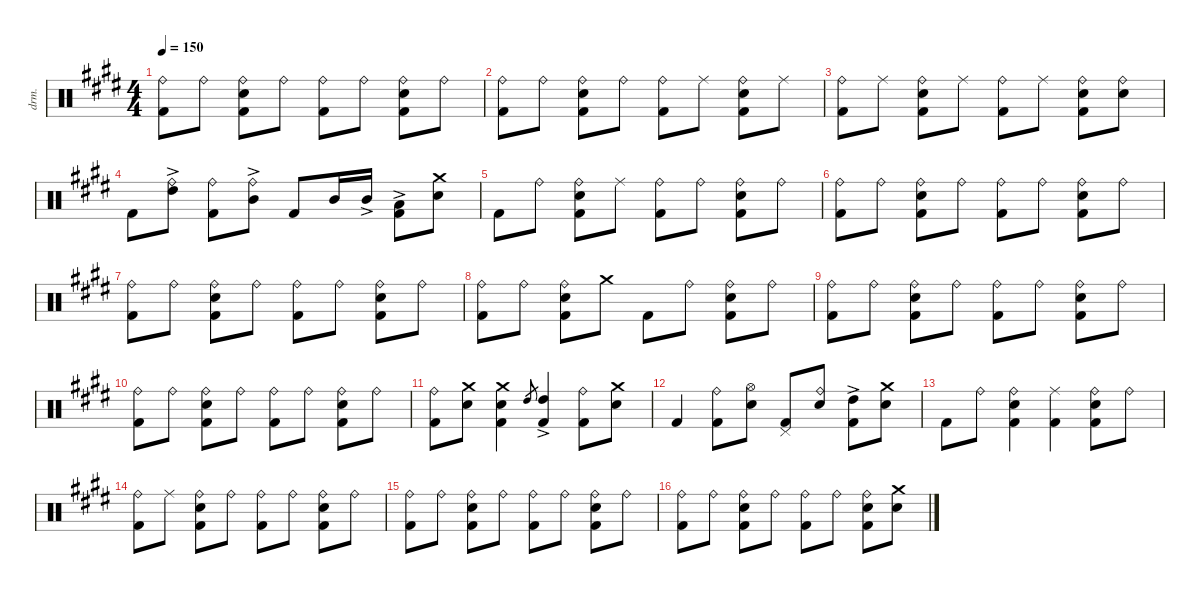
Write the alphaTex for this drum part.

\defaultSystemsLayout 4
\hideDynamics
\bracketExtendMode nobrackets
\otherSystemsTrackNameOrientation horizontal
\track ("Drums - S. Copeland" "drm.") {instrument percussion}
\staff {score}
\articulation defaults
\ts (4 4)
\tempo 150
\clef neutral
\ks c#minor
("Ride (bell)"{acc forcenatural} "Kick (hit) 2"{acc forcenatural}).8{dy mf beam Down} "Ride (bell)"{acc forcenatural}.8{beam Down} ("Ride (bell)"{acc forcenatural} "Snare (hit) 2"{acc forcenatural} "Kick (hit) 2"{acc forcenatural}).8{beam Down} "Ride (bell)"{acc forcenatural}.8{beam Down} ("Ride (bell)"{acc forcenatural} "Kick (hit) 2"{acc forcenatural}).8{beam Down} "Ride (bell)"{acc forcenatural}.8{beam Down} ("Ride (bell)"{acc forcenatural} "Snare (hit) 2"{acc forcenatural} "Kick (hit) 2"{acc forcenatural}).8{beam Down} "Ride (bell)"{acc forcenatural}.8{beam Down} |
("Ride (bell)"{acc forcenatural} "Kick (hit) 2"{acc forcenatural}).8{beam Down} "Ride (bell)"{acc forcenatural}.8{beam Down} ("Ride (bell)"{acc forcenatural} "Snare (hit) 2"{acc forcenatural} "Kick (hit) 2"{acc forcenatural}).8{beam Down} "Ride (bell)"{acc forcenatural}.8{beam Down} ("Ride (bell)"{acc forcenatural} "Kick (hit) 2"{acc forcenatural}).8{beam Down} "Ride (middle)"{acc forcenatural}.8{beam Down} ("Ride (bell)"{acc forcenatural} "Snare (hit) 2"{acc forcenatural} "Kick (hit) 2"{acc forcenatural}).8{beam Down} "Ride (middle)"{acc forcenatural}.8{beam Down} |
("Ride (bell)"{acc forcenatural} "Kick (hit) 2"{acc forcenatural}).8{beam Down} "Ride (middle)"{acc forcenatural}.8{beam Down} ("Ride (bell)"{acc forcenatural} "Snare (hit) 2"{acc forcenatural} "Kick (hit) 2"{acc forcenatural}).8{beam Down} "Ride (middle)"{acc forcenatural}.8{beam Down} ("Ride (bell)"{acc forcenatural} "Kick (hit) 2"{acc forcenatural}).8{beam Down} "Ride (middle)"{acc forcenatural}.8{beam Down} ("Ride (bell)"{acc forcenatural} "Snare (hit) 2"{acc forcenatural} "Kick (hit) 2"{acc forcenatural}).8{beam Down} ("Ride (bell)"{acc forcenatural} "Snare (hit) 2"{acc forcenatural}).8{beam Down} |
"Kick (hit) 2"{acc forcenatural}.8{beam Down} ("Ride (bell)"{acc forcenatural} "High Tom (hit)"{ac acc forcenatural}).8{beam Down} ("Ride (bell)"{acc forcenatural} "Kick (hit) 2"{acc forcenatural}).8{beam Down} ("Ride (bell)"{acc forcenatural} "Mid Tom (hit)"{ac acc forcenatural}).8{beam Down} "Kick (hit) 2"{acc forcenatural}.8{beam Up} "Mid Tom (hit)"{acc forcenatural}.16{beam Up} "Mid Tom (hit)"{ac acc forcenatural}.16{beam Up} ("Low Tom (hit)"{ac acc forcenatural} "Kick (hit) 2"{acc forcenatural}).8{beam Down} ("Snare (hit) 2"{acc forcenatural} "Crash medium (hit)"{acc forcenatural}).8{beam Down} |
"Kick (hit) 2"{acc forcenatural}.8{beam Down} "Ride (bell)"{acc forcenatural}.8{beam Down} ("Ride (bell)"{acc forcenatural} "Snare (hit) 2"{acc forcenatural} "Kick (hit) 2"{acc forcenatural}).8{beam Down} "Ride (middle)"{acc forcenatural}.8{beam Down} ("Ride (bell)"{acc forcenatural} "Kick (hit) 2"{acc forcenatural}).8{beam Down} "Ride (bell)"{acc forcenatural}.8{beam Down} ("Ride (bell)"{acc forcenatural} "Snare (hit) 2"{acc forcenatural} "Kick (hit) 2"{acc forcenatural}).8{beam Down} "Ride (bell)"{acc forcenatural}.8{beam Down} |
("Ride (bell)"{acc forcenatural} "Kick (hit) 2"{acc forcenatural}).8{beam Down} "Ride (bell)"{acc forcenatural}.8{beam Down} ("Ride (bell)"{acc forcenatural} "Snare (hit) 2"{acc forcenatural} "Kick (hit) 2"{acc forcenatural}).8{beam Down} "Ride (bell)"{acc forcenatural}.8{beam Down} ("Ride (bell)"{acc forcenatural} "Kick (hit) 2"{acc forcenatural}).8{beam Down} "Ride (bell)"{acc forcenatural}.8{beam Down} ("Ride (bell)"{acc forcenatural} "Snare (hit) 2"{acc forcenatural} "Kick (hit) 2"{acc forcenatural}).8{beam Down} "Ride (bell)"{acc forcenatural}.8{beam Down} |
("Ride (bell)"{acc forcenatural} "Kick (hit) 2"{acc forcenatural}).8{beam Down} "Ride (bell)"{acc forcenatural}.8{beam Down} ("Ride (bell)"{acc forcenatural} "Snare (hit) 2"{acc forcenatural} "Kick (hit) 2"{acc forcenatural}).8{beam Down} "Ride (bell)"{acc forcenatural}.8{beam Down} ("Ride (bell)"{acc forcenatural} "Kick (hit) 2"{acc forcenatural}).8{beam Down} "Ride (bell)"{acc forcenatural}.8{beam Down} ("Ride (bell)"{acc forcenatural} "Snare (hit) 2"{acc forcenatural} "Kick (hit) 2"{acc forcenatural}).8{beam Down} "Ride (bell)"{acc forcenatural}.8{beam Down} |
("Ride (bell)"{acc forcenatural} "Kick (hit) 2"{acc forcenatural}).8{beam Down} "Ride (bell)"{acc forcenatural}.8{beam Down} ("Ride (bell)"{acc forcenatural} "Snare (hit) 2"{acc forcenatural} "Kick (hit) 2"{acc forcenatural}).8{beam Down} "Crash medium (hit)"{acc forcenatural}.8{beam Down} "Kick (hit) 2"{acc forcenatural}.8{beam Down} "Ride (bell)"{acc forcenatural}.8{beam Down} ("Ride (bell)"{acc forcenatural} "Snare (hit) 2"{acc forcenatural} "Kick (hit) 2"{acc forcenatural}).8{beam Down} "Ride (bell)"{acc forcenatural}.8{beam Down} |
("Ride (bell)"{acc forcenatural} "Kick (hit) 2"{acc forcenatural}).8{beam Down} "Ride (bell)"{acc forcenatural}.8{beam Down} ("Ride (bell)"{acc forcenatural} "Snare (hit) 2"{acc forcenatural} "Kick (hit) 2"{acc forcenatural}).8{beam Down} "Ride (bell)"{acc forcenatural}.8{beam Down} ("Ride (bell)"{acc forcenatural} "Kick (hit) 2"{acc forcenatural}).8{beam Down} "Ride (bell)"{acc forcenatural}.8{beam Down} ("Ride (bell)"{acc forcenatural} "Snare (hit) 2"{acc forcenatural} "Kick (hit) 2"{acc forcenatural}).8{beam Down} "Ride (bell)"{acc forcenatural}.8{beam Down} |
("Ride (bell)"{acc forcenatural} "Kick (hit) 2"{acc forcenatural}).8{beam Down} "Ride (bell)"{acc forcenatural}.8{beam Down} ("Ride (bell)"{acc forcenatural} "Snare (hit) 2"{acc forcenatural} "Kick (hit) 2"{acc forcenatural}).8{beam Down} "Ride (bell)"{acc forcenatural}.8{beam Down} ("Ride (bell)"{acc forcenatural} "Kick (hit) 2"{acc forcenatural}).8{beam Down} "Ride (bell)"{acc forcenatural}.8{beam Down} ("Ride (bell)"{acc forcenatural} "Snare (hit) 2"{acc forcenatural} "Kick (hit) 2"{acc forcenatural}).8{beam Down} "Ride (bell)"{acc forcenatural}.8{beam Down} |
("Ride (bell)"{acc forcenatural} "Kick (hit) 2"{acc forcenatural}).8{beam Down} ("Snare (hit) 2"{acc forcenatural} "Crash medium (hit)"{acc forcenatural}).8{beam Down} ("Snare (hit) 2"{acc forcenatural} "Crash medium (hit)"{acc forcenatural} "Kick (hit) 2"{acc forcenatural}).4{beam Down} "High Tom (hit)"{acc forcenatural}.8{gr beam Up} ("High Tom (hit)"{ac acc forcenatural} "Kick (hit) 2"{acc forcenatural}).4{beam Up} ("Ride (bell)"{acc forcenatural} "Kick (hit) 2"{acc forcenatural}).8{beam Down} ("Crash medium (hit)"{acc forcenatural} "Snare (hit) 2"{acc forcenatural}).8{beam Down} |
"Kick (hit) 2"{acc forcenatural}.4{beam Up} ("Ride (bell)"{acc forcenatural} "Kick (hit) 2"{acc forcenatural}).8{beam Down} ("Hi-Hat (open)"{acc forcenatural} "Snare (hit) 2"{acc forcenatural}).8{beam Down} ("Pedal Hi-Hat (hit)"{acc forcenatural} "Kick (hit) 2"{acc forcenatural}).8{beam Up} ("Snare (hit) 2"{acc forcenatural} "Ride (bell)"{acc forcenatural}).8{beam Up} ("High Tom (hit)"{ac acc forcenatural} "Kick (hit) 2"{acc forcenatural}).8{beam Down} ("Snare (hit) 2"{acc forcenatural} "Crash medium (hit)"{acc forcenatural}).8{beam Down} |
"Kick (hit) 2"{acc forcenatural}.8{beam Down} "Ride (bell)"{acc forcenatural}.8{beam Down} ("Ride (bell)"{acc forcenatural} "Snare (hit) 2"{acc forcenatural} "Kick (hit) 2"{acc forcenatural}).4{beam Down} ("Ride (middle)"{acc forcenatural} "Kick (hit) 2"{acc forcenatural}).4{beam Down} ("Ride (bell)"{acc forcenatural} "Snare (hit) 2"{acc forcenatural} "Kick (hit) 2"{acc forcenatural}).8{beam Down} "Ride (bell)"{acc forcenatural}.8{beam Down} |
("Ride (bell)"{acc forcenatural} "Kick (hit) 2"{acc forcenatural}).8{beam Down} "Ride (middle)"{acc forcenatural}.8{beam Down} ("Ride (bell)"{acc forcenatural} "Snare (hit) 2"{acc forcenatural} "Kick (hit) 2"{acc forcenatural}).8{beam Down} "Ride (bell)"{acc forcenatural}.8{beam Down} ("Ride (bell)"{acc forcenatural} "Kick (hit) 2"{acc forcenatural}).8{beam Down} "Ride (bell)"{acc forcenatural}.8{beam Down} ("Ride (bell)"{acc forcenatural} "Snare (hit) 2"{acc forcenatural} "Kick (hit) 2"{acc forcenatural}).8{beam Down} "Ride (bell)"{acc forcenatural}.8{beam Down} |
("Ride (bell)"{acc forcenatural} "Kick (hit) 2"{acc forcenatural}).8{beam Down} "Ride (bell)"{acc forcenatural}.8{beam Down} ("Ride (bell)"{acc forcenatural} "Snare (hit) 2"{acc forcenatural} "Kick (hit) 2"{acc forcenatural}).8{beam Down} "Ride (bell)"{acc forcenatural}.8{beam Down} ("Ride (bell)"{acc forcenatural} "Kick (hit) 2"{acc forcenatural}).8{beam Down} "Ride (bell)"{acc forcenatural}.8{beam Down} ("Ride (bell)"{acc forcenatural} "Snare (hit) 2"{acc forcenatural} "Kick (hit) 2"{acc forcenatural}).8{beam Down} "Ride (bell)"{acc forcenatural}.8{beam Down} |
("Ride (bell)"{acc forcenatural} "Kick (hit) 2"{acc forcenatural}).8{beam Down} "Ride (bell)"{acc forcenatural}.8{beam Down} ("Ride (bell)"{acc forcenatural} "Snare (hit) 2"{acc forcenatural} "Kick (hit) 2"{acc forcenatural}).8{beam Down} "Ride (bell)"{acc forcenatural}.8{beam Down} ("Ride (bell)"{acc forcenatural} "Kick (hit) 2"{acc forcenatural}).8{beam Down} "Ride (bell)"{acc forcenatural}.8{beam Down} ("Ride (bell)"{acc forcenatural} "Snare (hit) 2"{acc forcenatural} "Kick (hit) 2"{acc forcenatural}).8{beam Down} ("Snare (hit) 2"{acc forcenatural} "Crash medium (hit)"{acc forcenatural}).8{beam Down}
